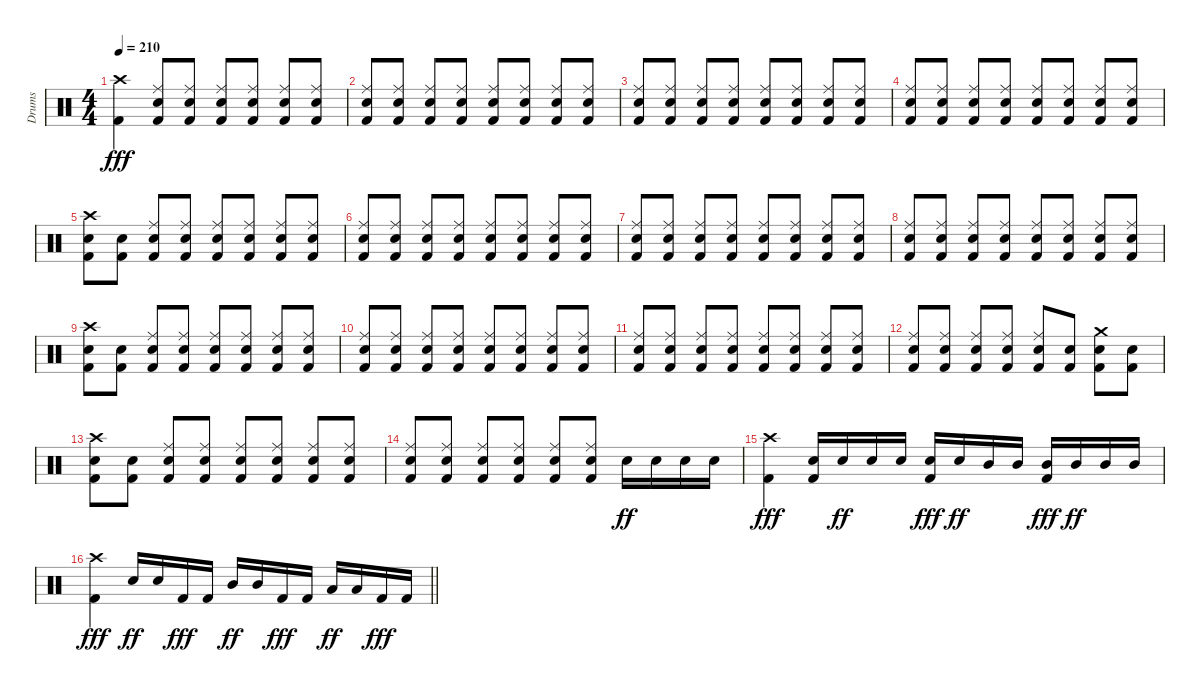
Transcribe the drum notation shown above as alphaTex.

\track ("Drums" "Drums") {instrument percussion}
\staff {score}
\articulation defaults
\ts (4 4)
\tempo 210
\clef neutral
\ks c
("Crash high (hit)" "Kick (hit) 2").4{dy fff} ("Ride (middle)" "Snare (hit) 2" "Kick (hit) 2").8 ("Ride (middle)" "Snare (hit) 2" "Kick (hit) 2").8 ("Ride (middle)" "Snare (hit) 2" "Kick (hit) 2").8 ("Ride (middle)" "Snare (hit) 2" "Kick (hit) 2").8 ("Ride (middle)" "Snare (hit) 2" "Kick (hit) 2").8 ("Ride (middle)" "Snare (hit) 2" "Kick (hit) 2").8 |
("Ride (middle)" "Snare (hit) 2" "Kick (hit) 2").8 ("Ride (middle)" "Snare (hit) 2" "Kick (hit) 2").8 ("Ride (middle)" "Snare (hit) 2" "Kick (hit) 2").8 ("Ride (middle)" "Snare (hit) 2" "Kick (hit) 2").8 ("Ride (middle)" "Snare (hit) 2" "Kick (hit) 2").8 ("Ride (middle)" "Snare (hit) 2" "Kick (hit) 2").8 ("Ride (middle)" "Snare (hit) 2" "Kick (hit) 2").8 ("Ride (middle)" "Snare (hit) 2" "Kick (hit) 2").8 |
("Ride (middle)" "Snare (hit) 2" "Kick (hit) 2").8 ("Ride (middle)" "Snare (hit) 2" "Kick (hit) 2").8 ("Ride (middle)" "Snare (hit) 2" "Kick (hit) 2").8 ("Ride (middle)" "Snare (hit) 2" "Kick (hit) 2").8 ("Ride (middle)" "Snare (hit) 2" "Kick (hit) 2").8 ("Ride (middle)" "Snare (hit) 2" "Kick (hit) 2").8 ("Ride (middle)" "Snare (hit) 2" "Kick (hit) 2").8 ("Ride (middle)" "Snare (hit) 2" "Kick (hit) 2").8 |
("Ride (middle)" "Snare (hit) 2" "Kick (hit) 2").8 ("Ride (middle)" "Snare (hit) 2" "Kick (hit) 2").8 ("Ride (middle)" "Snare (hit) 2" "Kick (hit) 2").8 ("Ride (middle)" "Snare (hit) 2" "Kick (hit) 2").8 ("Ride (middle)" "Snare (hit) 2" "Kick (hit) 2").8 ("Ride (middle)" "Snare (hit) 2" "Kick (hit) 2").8 ("Ride (middle)" "Snare (hit) 2" "Kick (hit) 2").8 ("Ride (middle)" "Snare (hit) 2" "Kick (hit) 2").8 |
("Crash high (hit)" "Snare (hit) 2" "Kick (hit) 2").8 ("Snare (hit) 2" "Kick (hit) 2").8 ("Ride (middle)" "Snare (hit) 2" "Kick (hit) 2").8 ("Ride (middle)" "Snare (hit) 2" "Kick (hit) 2").8 ("Ride (middle)" "Snare (hit) 2" "Kick (hit) 2").8 ("Ride (middle)" "Snare (hit) 2" "Kick (hit) 2").8 ("Ride (middle)" "Snare (hit) 2" "Kick (hit) 2").8 ("Ride (middle)" "Snare (hit) 2" "Kick (hit) 2").8 |
("Ride (middle)" "Snare (hit) 2" "Kick (hit) 2").8 ("Ride (middle)" "Snare (hit) 2" "Kick (hit) 2").8 ("Ride (middle)" "Snare (hit) 2" "Kick (hit) 2").8 ("Ride (middle)" "Snare (hit) 2" "Kick (hit) 2").8 ("Ride (middle)" "Snare (hit) 2" "Kick (hit) 2").8 ("Ride (middle)" "Snare (hit) 2" "Kick (hit) 2").8 ("Ride (middle)" "Snare (hit) 2" "Kick (hit) 2").8 ("Ride (middle)" "Snare (hit) 2" "Kick (hit) 2").8 |
("Ride (middle)" "Snare (hit) 2" "Kick (hit) 2").8 ("Ride (middle)" "Snare (hit) 2" "Kick (hit) 2").8 ("Ride (middle)" "Snare (hit) 2" "Kick (hit) 2").8 ("Ride (middle)" "Snare (hit) 2" "Kick (hit) 2").8 ("Ride (middle)" "Snare (hit) 2" "Kick (hit) 2").8 ("Ride (middle)" "Snare (hit) 2" "Kick (hit) 2").8 ("Ride (middle)" "Snare (hit) 2" "Kick (hit) 2").8 ("Ride (middle)" "Snare (hit) 2" "Kick (hit) 2").8 |
("Ride (middle)" "Snare (hit) 2" "Kick (hit) 2").8 ("Ride (middle)" "Snare (hit) 2" "Kick (hit) 2").8 ("Ride (middle)" "Snare (hit) 2" "Kick (hit) 2").8 ("Ride (middle)" "Snare (hit) 2" "Kick (hit) 2").8 ("Ride (middle)" "Snare (hit) 2" "Kick (hit) 2").8 ("Ride (middle)" "Snare (hit) 2" "Kick (hit) 2").8 ("Ride (middle)" "Snare (hit) 2" "Kick (hit) 2").8 ("Ride (middle)" "Snare (hit) 2" "Kick (hit) 2").8 |
("Crash high (hit)" "Snare (hit) 2" "Kick (hit) 2").8 ("Snare (hit) 2" "Kick (hit) 2").8 ("Ride (middle)" "Snare (hit) 2" "Kick (hit) 2").8 ("Ride (middle)" "Snare (hit) 2" "Kick (hit) 2").8 ("Ride (middle)" "Snare (hit) 2" "Kick (hit) 2").8 ("Ride (middle)" "Snare (hit) 2" "Kick (hit) 2").8 ("Ride (middle)" "Snare (hit) 2" "Kick (hit) 2").8 ("Ride (middle)" "Snare (hit) 2" "Kick (hit) 2").8 |
("Ride (middle)" "Snare (hit) 2" "Kick (hit) 2").8 ("Ride (middle)" "Snare (hit) 2" "Kick (hit) 2").8 ("Ride (middle)" "Snare (hit) 2" "Kick (hit) 2").8 ("Ride (middle)" "Snare (hit) 2" "Kick (hit) 2").8 ("Ride (middle)" "Snare (hit) 2" "Kick (hit) 2").8 ("Ride (middle)" "Snare (hit) 2" "Kick (hit) 2").8 ("Ride (middle)" "Snare (hit) 2" "Kick (hit) 2").8 ("Ride (middle)" "Snare (hit) 2" "Kick (hit) 2").8 |
("Ride (middle)" "Snare (hit) 2" "Kick (hit) 2").8 ("Ride (middle)" "Snare (hit) 2" "Kick (hit) 2").8 ("Ride (middle)" "Snare (hit) 2" "Kick (hit) 2").8 ("Ride (middle)" "Snare (hit) 2" "Kick (hit) 2").8 ("Ride (middle)" "Snare (hit) 2" "Kick (hit) 2").8 ("Ride (middle)" "Snare (hit) 2" "Kick (hit) 2").8 ("Ride (middle)" "Snare (hit) 2" "Kick (hit) 2").8 ("Ride (middle)" "Snare (hit) 2" "Kick (hit) 2").8 |
("Ride (middle)" "Snare (hit) 2" "Kick (hit) 2").8 ("Ride (middle)" "Snare (hit) 2" "Kick (hit) 2").8 ("Ride (middle)" "Snare (hit) 2" "Kick (hit) 2").8 ("Ride (middle)" "Snare (hit) 2" "Kick (hit) 2").8 ("Ride (middle)" "Snare (hit) 2" "Kick (hit) 2").8 ("Snare (hit) 2" "Kick (hit) 2").8 ("Crash medium (hit)" "Snare (hit) 2" "Kick (hit) 2").8 ("Snare (hit) 2" "Kick (hit) 2").8 |
("Crash high (hit)" "Snare (hit) 2" "Kick (hit) 2").8 ("Snare (hit) 2" "Kick (hit) 2").8 ("Ride (middle)" "Snare (hit) 2" "Kick (hit) 2").8 ("Ride (middle)" "Snare (hit) 2" "Kick (hit) 2").8 ("Ride (middle)" "Snare (hit) 2" "Kick (hit) 2").8 ("Ride (middle)" "Snare (hit) 2" "Kick (hit) 2").8 ("Ride (middle)" "Snare (hit) 2" "Kick (hit) 2").8 ("Ride (middle)" "Snare (hit) 2" "Kick (hit) 2").8 |
("Ride (middle)" "Snare (hit) 2" "Kick (hit) 2").8 ("Ride (middle)" "Snare (hit) 2" "Kick (hit) 2").8 ("Ride (middle)" "Snare (hit) 2" "Kick (hit) 2").8 ("Ride (middle)" "Snare (hit) 2" "Kick (hit) 2").8 ("Ride (middle)" "Snare (hit) 2" "Kick (hit) 2").8 ("Ride (middle)" "Snare (hit) 2" "Kick (hit) 2").8 "Snare (hit) 2".16{dy ff} "Snare (hit) 2".16 "Snare (hit) 2".16 "Snare (hit) 2".16 |
("Crash high (hit)" "Kick (hit) 2").4{dy fff} ("Snare (hit) 2" "Kick (hit) 2").16 "Snare (hit) 2".16{dy ff} "Snare (hit) 2".16 "Snare (hit) 2".16 ("Snare (hit) 2" "Kick (hit) 2").16{dy fff} "Snare (hit) 2".16{dy ff} "Mid Tom (hit)".16 "Mid Tom (hit)".16 ("Mid Tom (hit)" "Kick (hit) 2").16{dy fff} "Mid Tom (hit)".16{dy ff} "Mid Tom (hit)".16 "Mid Tom (hit)".16 |
\barLineRight lightlight
("Crash high (hit)" "Kick (hit) 2").4{dy fff} "Snare (hit) 2".16{dy ff} "Snare (hit) 2".16 "Kick (hit) 2".16{dy fff} "Kick (hit) 2".16 "Mid Tom (hit)".16{dy ff} "Mid Tom (hit)".16 "Kick (hit) 2".16{dy fff} "Kick (hit) 2".16 "Low Tom (hit)".16{dy ff} "Low Tom (hit)".16 "Kick (hit) 2".16{dy fff} "Kick (hit) 2".16
